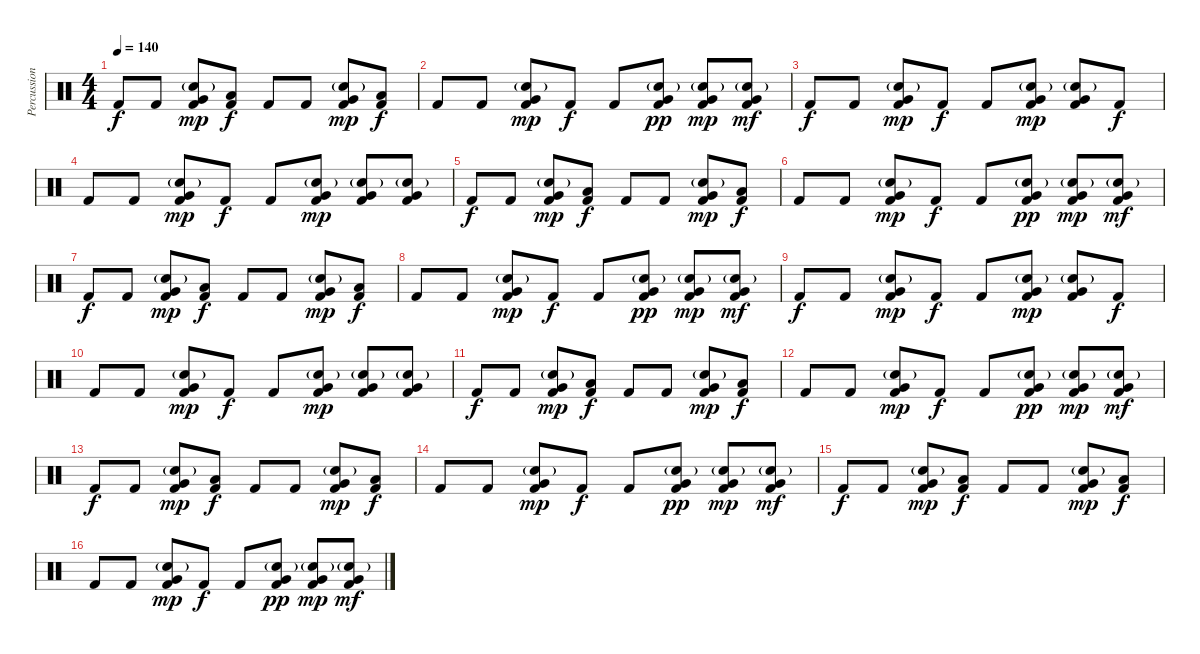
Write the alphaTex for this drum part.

\track ("Percussion" "Percussion") {instrument percussion}
\staff {score}
\articulation defaults
\ts (4 4)
\tempo 140
\clef neutral
\ks c "Kick (hit) 2".8{dy f} "Kick (hit) 2".8
("Very Low Tom (hit)" "Electric Snare (hit)"{g} "Kick (hit) 2").8{dy mp} ("Low Floor Tom (hit)" "Kick (hit) 2").8{dy f} "Kick (hit) 2".8 "Kick (hit) 2".8 ("Very Low Tom (hit)" "Electric Snare (hit)"{g} "Kick (hit) 2").8{dy mp} ("Low Floor Tom (hit)" "Kick (hit) 2").8{dy f} |
"Kick (hit) 2".8 "Kick (hit) 2".8 ("Very Low Tom (hit)" "Electric Snare (hit)"{g} "Kick (hit) 2").8{dy mp} "Kick (hit) 2".8{dy f} "Kick (hit) 2".8 ("Very Low Tom (hit)" "Electric Snare (hit)"{g} "Kick (hit) 2").8{dy pp} ("Very Low Tom (hit)" "Electric Snare (hit)"{g} "Kick (hit) 2").8{dy mp} ("Very Low Tom (hit)" "Electric Snare (hit)"{g} "Kick (hit) 2").8{dy mf} |
"Kick (hit) 2".8{dy f} "Kick (hit) 2".8 ("Very Low Tom (hit)" "Electric Snare (hit)"{g} "Kick (hit) 2").8{dy mp} "Kick (hit) 2".8{dy f} "Kick (hit) 2".8 ("Very Low Tom (hit)" "Electric Snare (hit)"{g} "Kick (hit) 2").8{dy mp} ("Very Low Tom (hit)" "Electric Snare (hit)"{g} "Kick (hit) 2").8 "Kick (hit) 2".8{dy f} |
"Kick (hit) 2".8 "Kick (hit) 2".8 ("Very Low Tom (hit)" "Electric Snare (hit)"{g} "Kick (hit) 2").8{dy mp} "Kick (hit) 2".8{dy f} "Kick (hit) 2".8 ("Very Low Tom (hit)" "Electric Snare (hit)"{g} "Kick (hit) 2").8{dy mp} ("Very Low Tom (hit)" "Electric Snare (hit)"{g} "Kick (hit) 2").8 ("Very Low Tom (hit)" "Electric Snare (hit)"{g} "Kick (hit) 2").8 |
"Kick (hit) 2".8{dy f} "Kick (hit) 2".8 ("Very Low Tom (hit)" "Electric Snare (hit)"{g} "Kick (hit) 2").8{dy mp} ("Low Floor Tom (hit)" "Kick (hit) 2").8{dy f} "Kick (hit) 2".8 "Kick (hit) 2".8 ("Very Low Tom (hit)" "Electric Snare (hit)"{g} "Kick (hit) 2").8{dy mp} ("Low Floor Tom (hit)" "Kick (hit) 2").8{dy f} |
"Kick (hit) 2".8 "Kick (hit) 2".8 ("Very Low Tom (hit)" "Electric Snare (hit)"{g} "Kick (hit) 2").8{dy mp} "Kick (hit) 2".8{dy f} "Kick (hit) 2".8 ("Very Low Tom (hit)" "Electric Snare (hit)"{g} "Kick (hit) 2").8{dy pp} ("Very Low Tom (hit)" "Electric Snare (hit)"{g} "Kick (hit) 2").8{dy mp} ("Very Low Tom (hit)" "Electric Snare (hit)"{g} "Kick (hit) 2").8{dy mf} |
"Kick (hit) 2".8{dy f} "Kick (hit) 2".8 ("Very Low Tom (hit)" "Electric Snare (hit)"{g} "Kick (hit) 2").8{dy mp} ("Low Floor Tom (hit)" "Kick (hit) 2").8{dy f} "Kick (hit) 2".8 "Kick (hit) 2".8 ("Very Low Tom (hit)" "Electric Snare (hit)"{g} "Kick (hit) 2").8{dy mp} ("Low Floor Tom (hit)" "Kick (hit) 2").8{dy f} |
"Kick (hit) 2".8 "Kick (hit) 2".8 ("Very Low Tom (hit)" "Electric Snare (hit)"{g} "Kick (hit) 2").8{dy mp} "Kick (hit) 2".8{dy f} "Kick (hit) 2".8 ("Very Low Tom (hit)" "Electric Snare (hit)"{g} "Kick (hit) 2").8{dy pp} ("Very Low Tom (hit)" "Electric Snare (hit)"{g} "Kick (hit) 2").8{dy mp} ("Very Low Tom (hit)" "Electric Snare (hit)"{g} "Kick (hit) 2").8{dy mf} |
"Kick (hit) 2".8{dy f} "Kick (hit) 2".8 ("Very Low Tom (hit)" "Electric Snare (hit)"{g} "Kick (hit) 2").8{dy mp} "Kick (hit) 2".8{dy f} "Kick (hit) 2".8 ("Very Low Tom (hit)" "Electric Snare (hit)"{g} "Kick (hit) 2").8{dy mp} ("Very Low Tom (hit)" "Electric Snare (hit)"{g} "Kick (hit) 2").8 "Kick (hit) 2".8{dy f} |
"Kick (hit) 2".8 "Kick (hit) 2".8 ("Very Low Tom (hit)" "Electric Snare (hit)"{g} "Kick (hit) 2").8{dy mp} "Kick (hit) 2".8{dy f} "Kick (hit) 2".8 ("Very Low Tom (hit)" "Electric Snare (hit)"{g} "Kick (hit) 2").8{dy mp} ("Very Low Tom (hit)" "Electric Snare (hit)"{g} "Kick (hit) 2").8 ("Very Low Tom (hit)" "Electric Snare (hit)"{g} "Kick (hit) 2").8 |
"Kick (hit) 2".8{dy f} "Kick (hit) 2".8 ("Very Low Tom (hit)" "Electric Snare (hit)"{g} "Kick (hit) 2").8{dy mp} ("Low Floor Tom (hit)" "Kick (hit) 2").8{dy f} "Kick (hit) 2".8 "Kick (hit) 2".8 ("Very Low Tom (hit)" "Electric Snare (hit)"{g} "Kick (hit) 2").8{dy mp} ("Low Floor Tom (hit)" "Kick (hit) 2").8{dy f} |
"Kick (hit) 2".8 "Kick (hit) 2".8 ("Very Low Tom (hit)" "Electric Snare (hit)"{g} "Kick (hit) 2").8{dy mp} "Kick (hit) 2".8{dy f} "Kick (hit) 2".8 ("Very Low Tom (hit)" "Electric Snare (hit)"{g} "Kick (hit) 2").8{dy pp} ("Very Low Tom (hit)" "Electric Snare (hit)"{g} "Kick (hit) 2").8{dy mp} ("Very Low Tom (hit)" "Electric Snare (hit)"{g} "Kick (hit) 2").8{dy mf} |
"Kick (hit) 2".8{dy f} "Kick (hit) 2".8 ("Very Low Tom (hit)" "Electric Snare (hit)"{g} "Kick (hit) 2").8{dy mp} ("Low Floor Tom (hit)" "Kick (hit) 2").8{dy f} "Kick (hit) 2".8 "Kick (hit) 2".8 ("Very Low Tom (hit)" "Electric Snare (hit)"{g} "Kick (hit) 2").8{dy mp} ("Low Floor Tom (hit)" "Kick (hit) 2").8{dy f} |
"Kick (hit) 2".8 "Kick (hit) 2".8 ("Very Low Tom (hit)" "Electric Snare (hit)"{g} "Kick (hit) 2").8{dy mp} "Kick (hit) 2".8{dy f} "Kick (hit) 2".8 ("Very Low Tom (hit)" "Electric Snare (hit)"{g} "Kick (hit) 2").8{dy pp} ("Very Low Tom (hit)" "Electric Snare (hit)"{g} "Kick (hit) 2").8{dy mp} ("Very Low Tom (hit)" "Electric Snare (hit)"{g} "Kick (hit) 2").8{dy mf} |
"Kick (hit) 2".8{dy f} "Kick (hit) 2".8 ("Very Low Tom (hit)" "Electric Snare (hit)"{g} "Kick (hit) 2").8{dy mp} ("Low Floor Tom (hit)" "Kick (hit) 2").8{dy f} "Kick (hit) 2".8 "Kick (hit) 2".8 ("Very Low Tom (hit)" "Electric Snare (hit)"{g} "Kick (hit) 2").8{dy mp} ("Low Floor Tom (hit)" "Kick (hit) 2").8{dy f} |
"Kick (hit) 2".8 "Kick (hit) 2".8 ("Very Low Tom (hit)" "Electric Snare (hit)"{g} "Kick (hit) 2").8{dy mp} "Kick (hit) 2".8{dy f} "Kick (hit) 2".8 ("Very Low Tom (hit)" "Electric Snare (hit)"{g} "Kick (hit) 2").8{dy pp} ("Very Low Tom (hit)" "Electric Snare (hit)"{g} "Kick (hit) 2").8{dy mp} ("Very Low Tom (hit)" "Electric Snare (hit)"{g} "Kick (hit) 2").8{dy mf}
